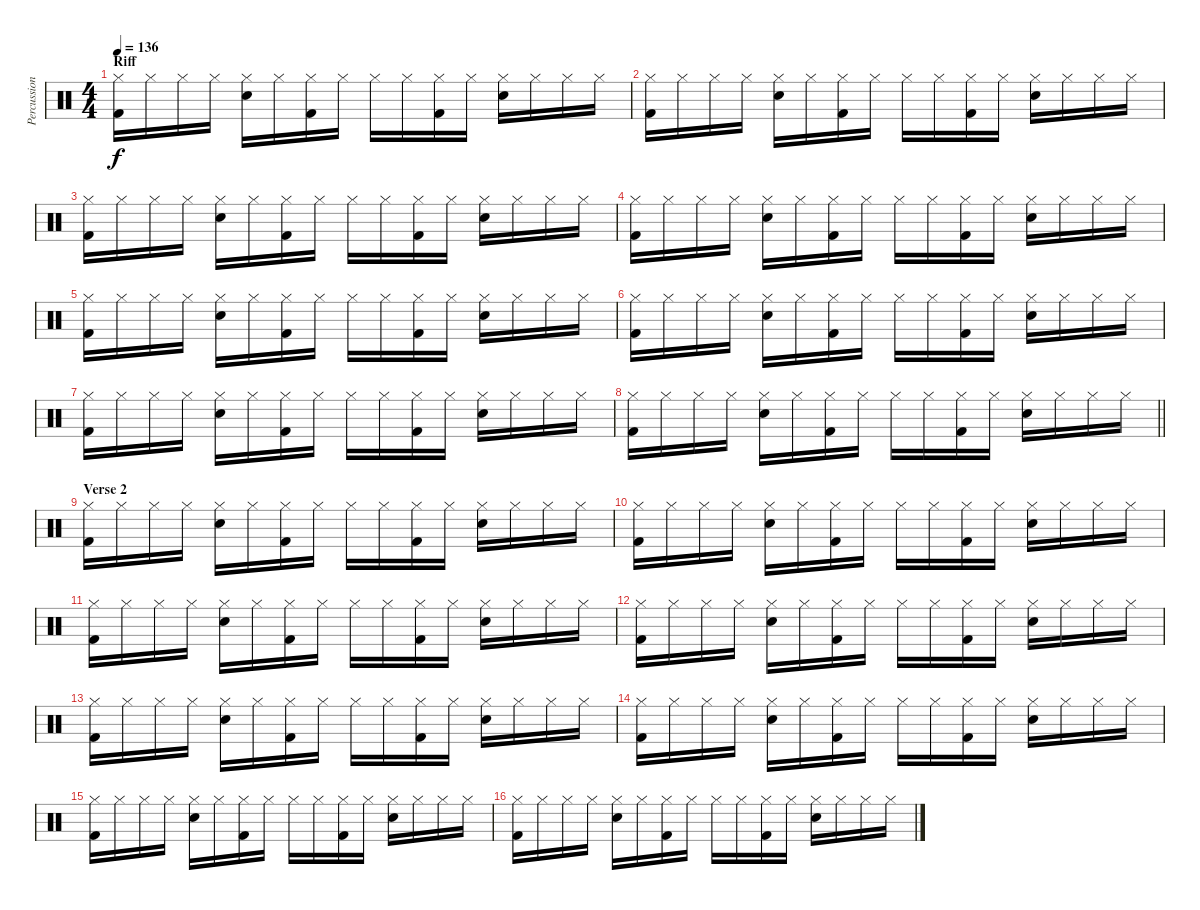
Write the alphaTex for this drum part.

\track ("Percussion" "Percussion") {instrument percussion}
\staff {score}
\articulation defaults
\ts (4 4)
\section ("" "Riff")
\tempo 136
\clef neutral
\ks c
("Hi-Hat (closed)" "Kick (hit) 2").16{dy f} "Hi-Hat (closed)".16 "Hi-Hat (closed)".16 "Hi-Hat (closed)".16 ("Hi-Hat (closed)" "Electric Snare (hit)").16 "Hi-Hat (closed)".16 ("Hi-Hat (closed)" "Kick (hit) 2").16 "Hi-Hat (closed)".16 "Hi-Hat (closed)".16 "Hi-Hat (closed)".16 ("Hi-Hat (closed)" "Kick (hit) 2").16 "Hi-Hat (closed)".16 ("Hi-Hat (closed)" "Electric Snare (hit)").16 "Hi-Hat (closed)".16 "Hi-Hat (closed)".16 "Hi-Hat (closed)".16 |
("Hi-Hat (closed)" "Kick (hit) 2").16 "Hi-Hat (closed)".16 "Hi-Hat (closed)".16 "Hi-Hat (closed)".16 ("Hi-Hat (closed)" "Electric Snare (hit)").16 "Hi-Hat (closed)".16 ("Hi-Hat (closed)" "Kick (hit) 2").16 "Hi-Hat (closed)".16 "Hi-Hat (closed)".16 "Hi-Hat (closed)".16 ("Hi-Hat (closed)" "Kick (hit) 2").16 "Hi-Hat (closed)".16 ("Hi-Hat (closed)" "Electric Snare (hit)").16 "Hi-Hat (closed)".16 "Hi-Hat (closed)".16 "Hi-Hat (closed)".16 |
("Hi-Hat (closed)" "Kick (hit) 2").16 "Hi-Hat (closed)".16 "Hi-Hat (closed)".16 "Hi-Hat (closed)".16 ("Hi-Hat (closed)" "Electric Snare (hit)").16 "Hi-Hat (closed)".16 ("Hi-Hat (closed)" "Kick (hit) 2").16 "Hi-Hat (closed)".16 "Hi-Hat (closed)".16 "Hi-Hat (closed)".16 ("Hi-Hat (closed)" "Kick (hit) 2").16 "Hi-Hat (closed)".16 ("Hi-Hat (closed)" "Electric Snare (hit)").16 "Hi-Hat (closed)".16 "Hi-Hat (closed)".16 "Hi-Hat (closed)".16 |
("Hi-Hat (closed)" "Kick (hit) 2").16 "Hi-Hat (closed)".16 "Hi-Hat (closed)".16 "Hi-Hat (closed)".16 ("Hi-Hat (closed)" "Electric Snare (hit)").16 "Hi-Hat (closed)".16 ("Hi-Hat (closed)" "Kick (hit) 2").16 "Hi-Hat (closed)".16 "Hi-Hat (closed)".16 "Hi-Hat (closed)".16 ("Hi-Hat (closed)" "Kick (hit) 2").16 "Hi-Hat (closed)".16 ("Hi-Hat (closed)" "Electric Snare (hit)").16 "Hi-Hat (closed)".16 "Hi-Hat (closed)".16 "Hi-Hat (closed)".16 |
("Hi-Hat (closed)" "Kick (hit) 2").16 "Hi-Hat (closed)".16 "Hi-Hat (closed)".16 "Hi-Hat (closed)".16 ("Hi-Hat (closed)" "Electric Snare (hit)").16 "Hi-Hat (closed)".16 ("Hi-Hat (closed)" "Kick (hit) 2").16 "Hi-Hat (closed)".16 "Hi-Hat (closed)".16 "Hi-Hat (closed)".16 ("Hi-Hat (closed)" "Kick (hit) 2").16 "Hi-Hat (closed)".16 ("Hi-Hat (closed)" "Electric Snare (hit)").16 "Hi-Hat (closed)".16 "Hi-Hat (closed)".16 "Hi-Hat (closed)".16 |
("Hi-Hat (closed)" "Kick (hit) 2").16 "Hi-Hat (closed)".16 "Hi-Hat (closed)".16 "Hi-Hat (closed)".16 ("Hi-Hat (closed)" "Electric Snare (hit)").16 "Hi-Hat (closed)".16 ("Hi-Hat (closed)" "Kick (hit) 2").16 "Hi-Hat (closed)".16 "Hi-Hat (closed)".16 "Hi-Hat (closed)".16 ("Hi-Hat (closed)" "Kick (hit) 2").16 "Hi-Hat (closed)".16 ("Hi-Hat (closed)" "Electric Snare (hit)").16 "Hi-Hat (closed)".16 "Hi-Hat (closed)".16 "Hi-Hat (closed)".16 |
("Hi-Hat (closed)" "Kick (hit) 2").16 "Hi-Hat (closed)".16 "Hi-Hat (closed)".16 "Hi-Hat (closed)".16 ("Hi-Hat (closed)" "Electric Snare (hit)").16 "Hi-Hat (closed)".16 ("Hi-Hat (closed)" "Kick (hit) 2").16 "Hi-Hat (closed)".16 "Hi-Hat (closed)".16 "Hi-Hat (closed)".16 ("Hi-Hat (closed)" "Kick (hit) 2").16 "Hi-Hat (closed)".16 ("Hi-Hat (closed)" "Electric Snare (hit)").16 "Hi-Hat (closed)".16 "Hi-Hat (closed)".16 "Hi-Hat (closed)".16 |
\barLineRight lightlight
("Hi-Hat (closed)" "Kick (hit) 2").16 "Hi-Hat (closed)".16 "Hi-Hat (closed)".16 "Hi-Hat (closed)".16 ("Hi-Hat (closed)" "Electric Snare (hit)").16 "Hi-Hat (closed)".16 ("Hi-Hat (closed)" "Kick (hit) 2").16 "Hi-Hat (closed)".16 "Hi-Hat (closed)".16 "Hi-Hat (closed)".16 ("Hi-Hat (closed)" "Kick (hit) 2").16 "Hi-Hat (closed)".16 ("Hi-Hat (closed)" "Electric Snare (hit)").16 "Hi-Hat (closed)".16 "Hi-Hat (closed)".16 "Hi-Hat (closed)".16 |
\section ("" "Verse 2")
("Hi-Hat (closed)" "Kick (hit) 2").16 "Hi-Hat (closed)".16 "Hi-Hat (closed)".16 "Hi-Hat (closed)".16 ("Hi-Hat (closed)" "Electric Snare (hit)").16 "Hi-Hat (closed)".16 ("Hi-Hat (closed)" "Kick (hit) 2").16 "Hi-Hat (closed)".16 "Hi-Hat (closed)".16 "Hi-Hat (closed)".16 ("Hi-Hat (closed)" "Kick (hit) 2").16 "Hi-Hat (closed)".16 ("Hi-Hat (closed)" "Electric Snare (hit)").16 "Hi-Hat (closed)".16 "Hi-Hat (closed)".16 "Hi-Hat (closed)".16 |
("Hi-Hat (closed)" "Kick (hit) 2").16 "Hi-Hat (closed)".16 "Hi-Hat (closed)".16 "Hi-Hat (closed)".16 ("Hi-Hat (closed)" "Electric Snare (hit)").16 "Hi-Hat (closed)".16 ("Hi-Hat (closed)" "Kick (hit) 2").16 "Hi-Hat (closed)".16 "Hi-Hat (closed)".16 "Hi-Hat (closed)".16 ("Hi-Hat (closed)" "Kick (hit) 2").16 "Hi-Hat (closed)".16 ("Hi-Hat (closed)" "Electric Snare (hit)").16 "Hi-Hat (closed)".16 "Hi-Hat (closed)".16 "Hi-Hat (closed)".16 |
("Hi-Hat (closed)" "Kick (hit) 2").16 "Hi-Hat (closed)".16 "Hi-Hat (closed)".16 "Hi-Hat (closed)".16 ("Hi-Hat (closed)" "Electric Snare (hit)").16 "Hi-Hat (closed)".16 ("Hi-Hat (closed)" "Kick (hit) 2").16 "Hi-Hat (closed)".16 "Hi-Hat (closed)".16 "Hi-Hat (closed)".16 ("Hi-Hat (closed)" "Kick (hit) 2").16 "Hi-Hat (closed)".16 ("Hi-Hat (closed)" "Electric Snare (hit)").16 "Hi-Hat (closed)".16 "Hi-Hat (closed)".16 "Hi-Hat (closed)".16 |
("Hi-Hat (closed)" "Kick (hit) 2").16 "Hi-Hat (closed)".16 "Hi-Hat (closed)".16 "Hi-Hat (closed)".16 ("Hi-Hat (closed)" "Electric Snare (hit)").16 "Hi-Hat (closed)".16 ("Hi-Hat (closed)" "Kick (hit) 2").16 "Hi-Hat (closed)".16 "Hi-Hat (closed)".16 "Hi-Hat (closed)".16 ("Hi-Hat (closed)" "Kick (hit) 2").16 "Hi-Hat (closed)".16 ("Hi-Hat (closed)" "Electric Snare (hit)").16 "Hi-Hat (closed)".16 "Hi-Hat (closed)".16 "Hi-Hat (closed)".16 |
("Hi-Hat (closed)" "Kick (hit) 2").16 "Hi-Hat (closed)".16 "Hi-Hat (closed)".16 "Hi-Hat (closed)".16 ("Hi-Hat (closed)" "Electric Snare (hit)").16 "Hi-Hat (closed)".16 ("Hi-Hat (closed)" "Kick (hit) 2").16 "Hi-Hat (closed)".16 "Hi-Hat (closed)".16 "Hi-Hat (closed)".16 ("Hi-Hat (closed)" "Kick (hit) 2").16 "Hi-Hat (closed)".16 ("Hi-Hat (closed)" "Electric Snare (hit)").16 "Hi-Hat (closed)".16 "Hi-Hat (closed)".16 "Hi-Hat (closed)".16 |
("Hi-Hat (closed)" "Kick (hit) 2").16 "Hi-Hat (closed)".16 "Hi-Hat (closed)".16 "Hi-Hat (closed)".16 ("Hi-Hat (closed)" "Electric Snare (hit)").16 "Hi-Hat (closed)".16 ("Hi-Hat (closed)" "Kick (hit) 2").16 "Hi-Hat (closed)".16 "Hi-Hat (closed)".16 "Hi-Hat (closed)".16 ("Hi-Hat (closed)" "Kick (hit) 2").16 "Hi-Hat (closed)".16 ("Hi-Hat (closed)" "Electric Snare (hit)").16 "Hi-Hat (closed)".16 "Hi-Hat (closed)".16 "Hi-Hat (closed)".16 |
("Hi-Hat (closed)" "Kick (hit) 2").16 "Hi-Hat (closed)".16 "Hi-Hat (closed)".16 "Hi-Hat (closed)".16 ("Hi-Hat (closed)" "Electric Snare (hit)").16 "Hi-Hat (closed)".16 ("Hi-Hat (closed)" "Kick (hit) 2").16 "Hi-Hat (closed)".16 "Hi-Hat (closed)".16 "Hi-Hat (closed)".16 ("Hi-Hat (closed)" "Kick (hit) 2").16 "Hi-Hat (closed)".16 ("Hi-Hat (closed)" "Electric Snare (hit)").16 "Hi-Hat (closed)".16 "Hi-Hat (closed)".16 "Hi-Hat (closed)".16 |
("Hi-Hat (closed)" "Kick (hit) 2").16 "Hi-Hat (closed)".16 "Hi-Hat (closed)".16 "Hi-Hat (closed)".16 ("Hi-Hat (closed)" "Electric Snare (hit)").16 "Hi-Hat (closed)".16 ("Hi-Hat (closed)" "Kick (hit) 2").16 "Hi-Hat (closed)".16 "Hi-Hat (closed)".16 "Hi-Hat (closed)".16 ("Hi-Hat (closed)" "Kick (hit) 2").16 "Hi-Hat (closed)".16 ("Hi-Hat (closed)" "Electric Snare (hit)").16 "Hi-Hat (closed)".16 "Hi-Hat (closed)".16 "Hi-Hat (closed)".16
